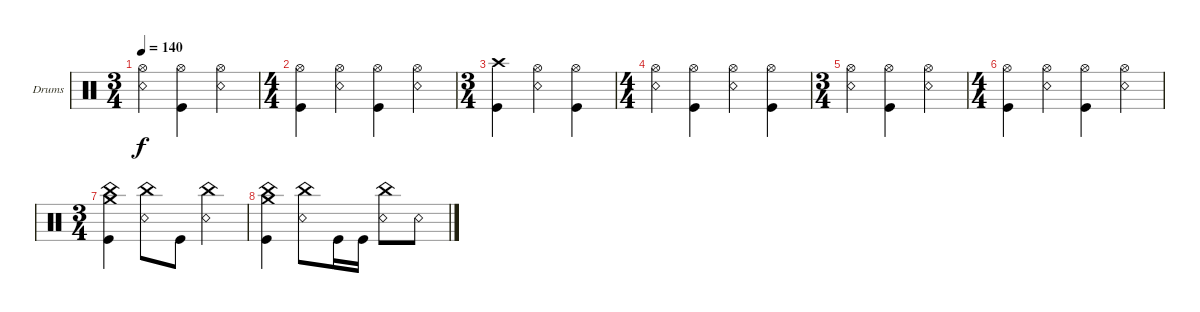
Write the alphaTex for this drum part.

\defaultSystemsLayout 4
\bracketExtendMode groupsimilarinstruments
\firstSystemTrackNameOrientation horizontal
\otherSystemsTrackNameOrientation horizontal
\track ("Drumkit" "Drums") {instrument percussion}
\staff {score}
\articulation defaults
\ts (3 4)
\tempo 140
\clef neutral
\ks c
("Hi-Hat (open)" "Snare (rim shot)").4{dy f} ("Hi-Hat (open)" "Kick (hit)").4 ("Hi-Hat (open)" "Snare (rim shot)").4 |
\ts (4 4)
("Hi-Hat (open)" "Kick (hit)").4 ("Hi-Hat (open)" "Snare (rim shot)").4 ("Hi-Hat (open)" "Kick (hit)").4 ("Hi-Hat (open)" "Snare (rim shot)").4 |
\ts (3 4)
("Crash high (hit)" "Kick (hit)").4 ("Hi-Hat (open)" "Snare (rim shot)").4 ("Hi-Hat (open)" "Kick (hit)").4 |
\ts (4 4)
("Hi-Hat (open)" "Snare (rim shot)").4 ("Hi-Hat (open)" "Kick (hit)").4 ("Hi-Hat (open)" "Snare (rim shot)").4 ("Hi-Hat (open)" "Kick (hit)").4 |
\ts (3 4)
("Hi-Hat (open)" "Snare (rim shot)").4 ("Hi-Hat (open)" "Kick (hit)").4 ("Hi-Hat (open)" "Snare (rim shot)").4 |
\ts (4 4)
("Hi-Hat (open)" "Kick (hit)").4 ("Hi-Hat (open)" "Snare (rim shot)").4 ("Hi-Hat (open)" "Kick (hit)").4 ("Hi-Hat (open)" "Snare (rim shot)").4 |
\ts (3 4)
("Crash medium (hit)" "China (hit)" "Kick (hit)").4 ("Snare (rim shot)" "China (hit)").8 "Kick (hit)".8 ("Snare (rim shot)" "China (hit)").4 |
("Crash medium (hit)" "China (hit)" "Kick (hit)").4 ("Snare (rim shot)" "China (hit)").8 "Kick (hit)".16 "Kick (hit)".16 ("Snare (rim shot)" "China (hit)").8 "Snare (rim shot)".8
